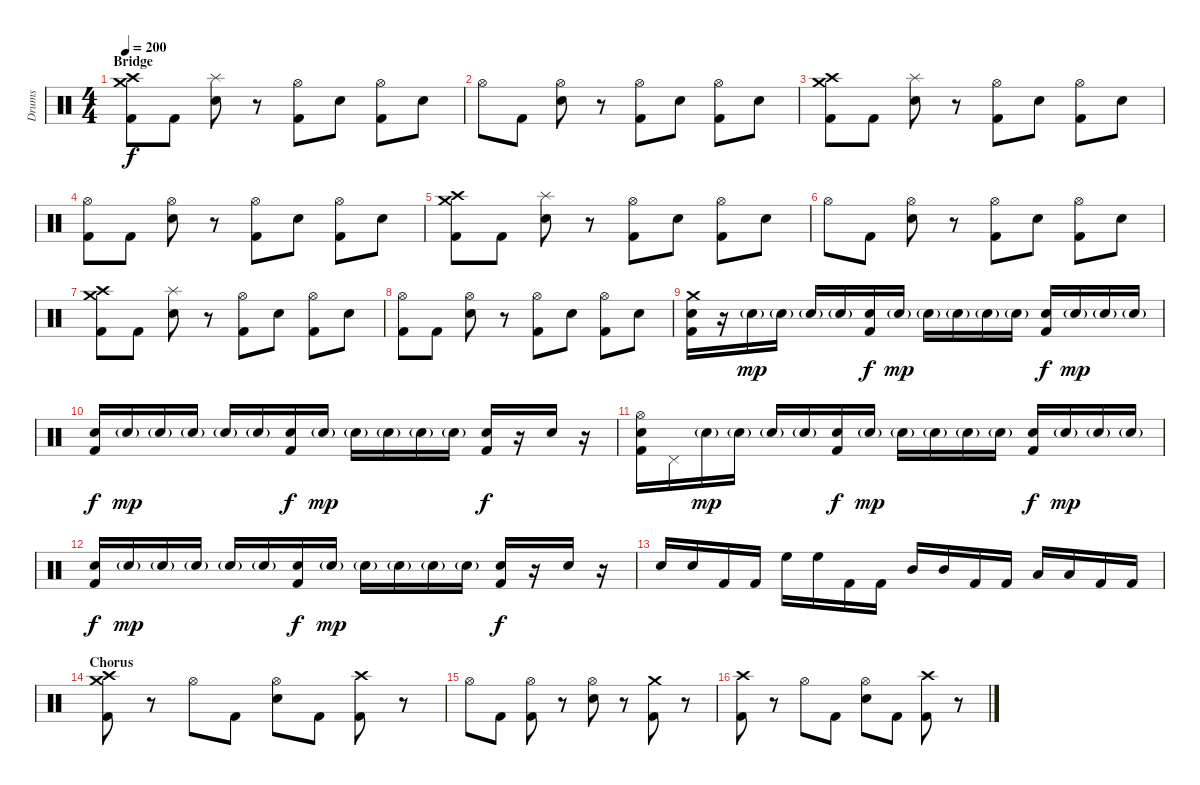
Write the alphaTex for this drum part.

\track ("Drums" "Drums") {instrument percussion}
\staff {score}
\articulation defaults
\ts (4 4)
\section ("" "Bridge")
\tempo 200
\clef neutral
\ks c
("Crash high (hit)" "Crash medium (hit)" "Kick (hit) 2").8{dy f} "Kick (hit) 2".8 ("Splash (hit)" "Electric Snare (hit)").8 r.8 ("Hi-Hat (open)" "Kick (hit) 2").8 "Electric Snare (hit)".8 ("Hi-Hat (open)" "Kick (hit) 2").8 "Electric Snare (hit)".8 |
"Hi-Hat (open)".8 "Kick (hit) 2".8 ("Hi-Hat (open)" "Electric Snare (hit)").8 r.8 ("Hi-Hat (open)" "Kick (hit) 2").8 "Electric Snare (hit)".8 ("Hi-Hat (open)" "Kick (hit) 2").8 "Electric Snare (hit)".8 |
("Crash high (hit)" "Crash medium (hit)" "Kick (hit) 2").8 "Kick (hit) 2".8 ("Splash (hit)" "Electric Snare (hit)").8 r.8 ("Hi-Hat (open)" "Kick (hit) 2").8 "Electric Snare (hit)".8 ("Hi-Hat (open)" "Kick (hit) 2").8 "Electric Snare (hit)".8 |
("Hi-Hat (open)" "Kick (hit) 2").8 "Kick (hit) 2".8 ("Hi-Hat (open)" "Electric Snare (hit)").8 r.8 ("Hi-Hat (open)" "Kick (hit) 2").8 "Electric Snare (hit)".8 ("Hi-Hat (open)" "Kick (hit) 2").8 "Electric Snare (hit)".8 |
("Crash high (hit)" "Crash medium (hit)" "Kick (hit) 2").8 "Kick (hit) 2".8 ("Splash (hit)" "Electric Snare (hit)").8 r.8 ("Hi-Hat (open)" "Kick (hit) 2").8 "Electric Snare (hit)".8 ("Hi-Hat (open)" "Kick (hit) 2").8 "Electric Snare (hit)".8 |
"Hi-Hat (open)".8 "Kick (hit) 2".8 ("Hi-Hat (open)" "Electric Snare (hit)").8 r.8 ("Hi-Hat (open)" "Kick (hit) 2").8 "Electric Snare (hit)".8 ("Hi-Hat (open)" "Kick (hit) 2").8 "Electric Snare (hit)".8 |
("Crash high (hit)" "Crash medium (hit)" "Kick (hit) 2").8 "Kick (hit) 2".8 ("Splash (hit)" "Electric Snare (hit)").8 r.8 ("Hi-Hat (open)" "Kick (hit) 2").8 "Electric Snare (hit)".8 ("Hi-Hat (open)" "Kick (hit) 2").8 "Electric Snare (hit)".8 |
("Hi-Hat (open)" "Kick (hit) 2").8 "Kick (hit) 2".8 ("Hi-Hat (open)" "Electric Snare (hit)").8 r.8 ("Hi-Hat (open)" "Kick (hit) 2").8 "Electric Snare (hit)".8 ("Hi-Hat (open)" "Kick (hit) 2").8 "Electric Snare (hit)".8 |
("Crash medium (hit)" "Electric Snare (hit)" "Kick (hit) 2").16 r.16 "Electric Snare (hit)"{g}.16{dy mp} "Electric Snare (hit)"{g}.16 "Electric Snare (hit)"{g}.16 "Electric Snare (hit)"{g}.16 ("Electric Snare (hit)" "Kick (hit) 2").16{dy f} "Electric Snare (hit)"{g}.16{dy mp} "Electric Snare (hit)"{g}.16 "Electric Snare (hit)"{g}.16 "Electric Snare (hit)"{g}.16 "Electric Snare (hit)"{g}.16 ("Electric Snare (hit)" "Kick (hit) 2").16{dy f} "Electric Snare (hit)"{g}.16{dy mp} "Electric Snare (hit)"{g}.16 "Electric Snare (hit)"{g}.16 |
("Electric Snare (hit)" "Kick (hit) 2").16{dy f} "Electric Snare (hit)"{g}.16{dy mp} "Electric Snare (hit)"{g}.16 "Electric Snare (hit)"{g}.16 "Electric Snare (hit)"{g}.16 "Electric Snare (hit)"{g}.16 ("Electric Snare (hit)" "Kick (hit) 2").16{dy f} "Electric Snare (hit)"{g}.16{dy mp} "Electric Snare (hit)"{g}.16 "Electric Snare (hit)"{g}.16 "Electric Snare (hit)"{g}.16 "Electric Snare (hit)"{g}.16 ("Electric Snare (hit)" "Kick (hit) 2").16{dy f} r.16 "Electric Snare (hit)".16 r.16 |
("Hi-Hat (open)" "Electric Snare (hit)" "Kick (hit) 2").16 "Pedal Hi-Hat (hit)".16 "Electric Snare (hit)"{g}.16{dy mp} "Electric Snare (hit)"{g}.16 "Electric Snare (hit)"{g}.16 "Electric Snare (hit)"{g}.16 ("Electric Snare (hit)" "Kick (hit) 2").16{dy f} "Electric Snare (hit)"{g}.16{dy mp} "Electric Snare (hit)"{g}.16 "Electric Snare (hit)"{g}.16 "Electric Snare (hit)"{g}.16 "Electric Snare (hit)"{g}.16 ("Electric Snare (hit)" "Kick (hit) 2").16{dy f} "Electric Snare (hit)"{g}.16{dy mp} "Electric Snare (hit)"{g}.16 "Electric Snare (hit)"{g}.16 |
("Electric Snare (hit)" "Kick (hit) 2").16{dy f} "Electric Snare (hit)"{g}.16{dy mp} "Electric Snare (hit)"{g}.16 "Electric Snare (hit)"{g}.16 "Electric Snare (hit)"{g}.16 "Electric Snare (hit)"{g}.16 ("Electric Snare (hit)" "Kick (hit) 2").16{dy f} "Electric Snare (hit)"{g}.16{dy mp} "Electric Snare (hit)"{g}.16 "Electric Snare (hit)"{g}.16 "Electric Snare (hit)"{g}.16 "Electric Snare (hit)"{g}.16 ("Electric Snare (hit)" "Kick (hit) 2").16{dy f} r.16 "Electric Snare (hit)".16 r.16 |
"Electric Snare (hit)".16 "Electric Snare (hit)".16 "Kick (hit) 2".16 "Kick (hit) 2".16 "High Floor Tom (hit)".16 "High Floor Tom (hit)".16 "Kick (hit) 2".16 "Kick (hit) 2".16 "Mid Tom (hit)".16 "Mid Tom (hit)".16 "Kick (hit) 2".16 "Kick (hit) 2".16 "Low Tom (hit)".16 "Low Tom (hit)".16 "Kick (hit) 2".16 "Kick (hit) 2".16 |
\section ("" "Chorus")
("Crash medium (hit)" "Crash high (hit)" "Kick (hit) 2").8 r.8 "Hi-Hat (open)".8 "Kick (hit) 2".8 ("Hi-Hat (open)" "Electric Snare (hit)").8 "Kick (hit) 2".8 ("Crash high (hit)" "Kick (hit) 2").8 r.8 |
"Hi-Hat (open)".8 "Kick (hit) 2".8 ("Hi-Hat (open)" "Kick (hit) 2").8 r.8 ("Hi-Hat (open)" "Electric Snare (hit)").8 r.8 ("Crash medium (hit)" "Kick (hit) 2").8 r.8 |
("Crash high (hit)" "Kick (hit) 2").8 r.8 "Hi-Hat (open)".8 "Kick (hit) 2".8 ("Hi-Hat (open)" "Electric Snare (hit)").8 "Kick (hit) 2".8 ("Crash high (hit)" "Kick (hit) 2").8 r.8
